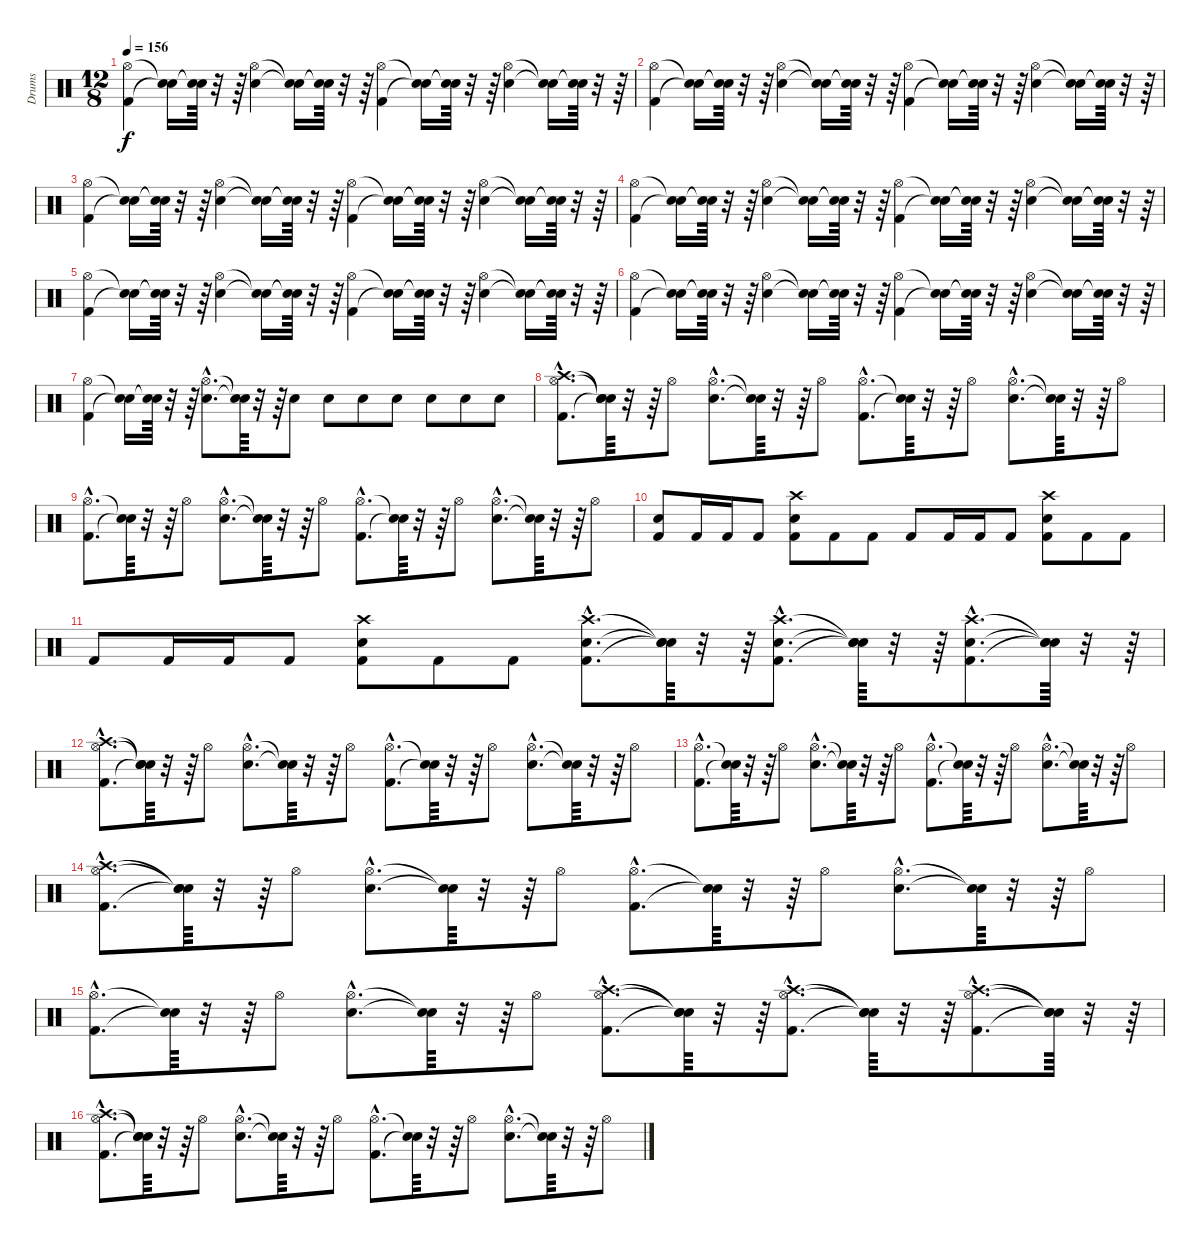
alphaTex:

\track ("Drums" "Drums") {instrument percussion}
\staff {score}
\articulation defaults
\ts (12 8)
\tempo 156
\clef neutral
\ks c
("Kick (hit) 2" "Hi-Hat (open)").4{dy f} ("Snare (hit)"{t} "Snare (hit)"{t}).16 ("Snare (hit)"{t} "Snare (hit)"{t}).64 r.32 r.64 ("Snare (hit) 2" "Hi-Hat (open)").4 ("Snare (hit)"{t} "Snare (hit)"{t}).16 ("Snare (hit)"{t} "Snare (hit)"{t}).64 r.32 r.64 ("Kick (hit) 2" "Hi-Hat (open)").4 ("Snare (hit)"{t} "Snare (hit)"{t}).16 ("Snare (hit)"{t} "Snare (hit)"{t}).64 r.32 r.64 ("Snare (hit) 2" "Hi-Hat (open)").4 ("Snare (hit)"{t} "Snare (hit)"{t}).16 ("Snare (hit)"{t} "Snare (hit)"{t}).64 r.32 r.64 |
("Kick (hit) 2" "Hi-Hat (open)").4 ("Snare (hit)"{t} "Snare (hit)"{t}).16 ("Snare (hit)"{t} "Snare (hit)"{t}).64 r.32 r.64 ("Snare (hit) 2" "Hi-Hat (open)").4 ("Snare (hit)"{t} "Snare (hit)"{t}).16 ("Snare (hit)"{t} "Snare (hit)"{t}).64 r.32 r.64 ("Kick (hit) 2" "Hi-Hat (open)").4 ("Snare (hit)"{t} "Snare (hit)"{t}).16 ("Snare (hit)"{t} "Snare (hit)"{t}).64 r.32 r.64 ("Snare (hit) 2" "Hi-Hat (open)").4 ("Snare (hit)"{t} "Snare (hit)"{t}).16 ("Snare (hit)"{t} "Snare (hit)"{t}).64 r.32 r.64 |
("Kick (hit) 2" "Hi-Hat (open)").4 ("Snare (hit)"{t} "Snare (hit)"{t}).16 ("Snare (hit)"{t} "Snare (hit)"{t}).64 r.32 r.64 ("Snare (hit) 2" "Hi-Hat (open)").4 ("Snare (hit)"{t} "Snare (hit)"{t}).16 ("Snare (hit)"{t} "Snare (hit)"{t}).64 r.32 r.64 ("Kick (hit) 2" "Hi-Hat (open)").4 ("Snare (hit)"{t} "Snare (hit)"{t}).16 ("Snare (hit)"{t} "Snare (hit)"{t}).64 r.32 r.64 ("Snare (hit) 2" "Hi-Hat (open)").4 ("Snare (hit)"{t} "Snare (hit)"{t}).16 ("Snare (hit)"{t} "Snare (hit)"{t}).64 r.32 r.64 |
("Kick (hit) 2" "Hi-Hat (open)").4 ("Snare (hit)"{t} "Snare (hit)"{t}).16 ("Snare (hit)"{t} "Snare (hit)"{t}).64 r.32 r.64 ("Snare (hit) 2" "Hi-Hat (open)").4 ("Snare (hit)"{t} "Snare (hit)"{t}).16 ("Snare (hit)"{t} "Snare (hit)"{t}).64 r.32 r.64 ("Kick (hit) 2" "Hi-Hat (open)").4 ("Snare (hit)"{t} "Snare (hit)"{t}).16 ("Snare (hit)"{t} "Snare (hit)"{t}).64 r.32 r.64 ("Snare (hit) 2" "Hi-Hat (open)").4 ("Snare (hit)"{t} "Snare (hit)"{t}).16 ("Snare (hit)"{t} "Snare (hit)"{t}).64 r.32 r.64 |
("Kick (hit) 2" "Hi-Hat (open)").4 ("Snare (hit)"{t} "Snare (hit)"{t}).16 ("Snare (hit)"{t} "Snare (hit)"{t}).64 r.32 r.64 ("Snare (hit) 2" "Hi-Hat (open)").4 ("Snare (hit)"{t} "Snare (hit)"{t}).16 ("Snare (hit)"{t} "Snare (hit)"{t}).64 r.32 r.64 ("Kick (hit) 2" "Hi-Hat (open)").4 ("Snare (hit)"{t} "Snare (hit)"{t}).16 ("Snare (hit)"{t} "Snare (hit)"{t}).64 r.32 r.64 ("Snare (hit) 2" "Hi-Hat (open)").4 ("Snare (hit)"{t} "Snare (hit)"{t}).16 ("Snare (hit)"{t} "Snare (hit)"{t}).64 r.32 r.64 |
("Kick (hit) 2" "Hi-Hat (open)").4 ("Snare (hit)"{t} "Snare (hit)"{t}).16 ("Snare (hit)"{t} "Snare (hit)"{t}).64 r.32 r.64 ("Snare (hit) 2" "Hi-Hat (open)").4 ("Snare (hit)"{t} "Snare (hit)"{t}).16 ("Snare (hit)"{t} "Snare (hit)"{t}).64 r.32 r.64 ("Kick (hit) 2" "Hi-Hat (open)").4 ("Snare (hit)"{t} "Snare (hit)"{t}).16 ("Snare (hit)"{t} "Snare (hit)"{t}).64 r.32 r.64 ("Snare (hit) 2" "Hi-Hat (open)").4 ("Snare (hit)"{t} "Snare (hit)"{t}).16 ("Snare (hit)"{t} "Snare (hit)"{t}).64 r.32 r.64 |
("Kick (hit) 2" "Hi-Hat (open)").4 ("Snare (hit)"{t} "Snare (hit)"{t}).16 ("Snare (hit)"{t} "Snare (hit)"{t}).64 r.32 r.64 ("Snare (hit) 2"{hac} "Hi-Hat (open)"{hac}).8{d} ("Snare (hit)"{t} "Snare (hit)"{t}).64 r.32 r.64 "Snare (hit) 2".8 "Snare (hit) 2".8 "Snare (hit) 2".8 "Snare (hit) 2".8 "Snare (hit) 2".8 "Snare (hit) 2".8 "Snare (hit) 2".8 |
("Kick (hit) 2"{hac} "Hi-Hat (open)"{hac} "Crash high (hit)"{hac}).8{d} ("Snare (hit)"{t} "Snare (hit)"{t} "Snare (hit)"{t}).64 r.32 r.64 "Hi-Hat (open)".8 ("Snare (hit) 2"{hac} "Hi-Hat (open)"{hac}).8{d} ("Snare (hit)"{t} "Snare (hit)"{t}).64 r.32 r.64 "Hi-Hat (open)".8 ("Kick (hit) 2"{hac} "Hi-Hat (open)"{hac}).8{d} ("Snare (hit)"{t} "Snare (hit)"{t}).64 r.32 r.64 "Hi-Hat (open)".8 ("Snare (hit) 2"{hac} "Hi-Hat (open)"{hac}).8{d} ("Snare (hit)"{t} "Snare (hit)"{t}).64 r.32 r.64 "Hi-Hat (open)".8 |
("Kick (hit) 2"{hac} "Hi-Hat (open)"{hac}).8{d} ("Snare (hit)"{t} "Snare (hit)"{t}).64 r.32 r.64 "Hi-Hat (open)".8 ("Snare (hit) 2"{hac} "Hi-Hat (open)"{hac}).8{d} ("Snare (hit)"{t} "Snare (hit)"{t}).64 r.32 r.64 "Hi-Hat (open)".8 ("Kick (hit) 2"{hac} "Hi-Hat (open)"{hac}).8{d} ("Snare (hit)"{t} "Snare (hit)"{t}).64 r.32 r.64 "Hi-Hat (open)".8 ("Snare (hit) 2"{hac} "Hi-Hat (open)"{hac}).8{d} ("Snare (hit)"{t} "Snare (hit)"{t}).64 r.32 r.64 "Hi-Hat (open)".8 |
("Kick (hit) 2" "Snare (hit) 2").8 "Kick (hit) 2".16 "Kick (hit) 2".16 "Kick (hit) 2".8 ("Kick (hit) 2" "Snare (hit) 2" "Crash high (hit)").8 "Kick (hit) 2".8 "Kick (hit) 2".8 "Kick (hit) 2".8 "Kick (hit) 2".16 "Kick (hit) 2".16 "Kick (hit) 2".8 ("Kick (hit) 2" "Snare (hit) 2" "Crash high (hit)").8 "Kick (hit) 2".8 "Kick (hit) 2".8 |
"Kick (hit) 2".8 "Kick (hit) 2".16 "Kick (hit) 2".16 "Kick (hit) 2".8 ("Kick (hit) 2" "Snare (hit) 2" "Crash high (hit)").8 "Kick (hit) 2".8 "Kick (hit) 2".8 ("Kick (hit) 2"{hac} "Snare (hit) 2"{hac} "Crash high (hit)"{hac}).8{d} ("Snare (hit)"{t} "Snare (hit)"{t} "Snare (hit)"{t}).64 r.32 r.64 ("Kick (hit) 2"{hac} "Snare (hit) 2"{hac} "Crash high (hit)"{hac}).8{d} ("Snare (hit)"{t} "Snare (hit)"{t} "Snare (hit)"{t}).64 r.32 r.64 ("Kick (hit) 2"{hac} "Snare (hit) 2"{hac} "Crash high (hit)"{hac}).8{d} ("Snare (hit)"{t} "Snare (hit)"{t} "Snare (hit)"{t}).64 r.32 r.64 |
("Kick (hit) 2"{hac} "Hi-Hat (open)"{hac} "Crash high (hit)"{hac}).8{d} ("Snare (hit)"{t} "Snare (hit)"{t} "Snare (hit)"{t}).64 r.32 r.64 "Hi-Hat (open)".8 ("Snare (hit) 2"{hac} "Hi-Hat (open)"{hac}).8{d} ("Snare (hit)"{t} "Snare (hit)"{t}).64 r.32 r.64 "Hi-Hat (open)".8 ("Kick (hit) 2"{hac} "Hi-Hat (open)"{hac}).8{d} ("Snare (hit)"{t} "Snare (hit)"{t}).64 r.32 r.64 "Hi-Hat (open)".8 ("Snare (hit) 2"{hac} "Hi-Hat (open)"{hac}).8{d} ("Snare (hit)"{t} "Snare (hit)"{t}).64 r.32 r.64 "Hi-Hat (open)".8 |
("Kick (hit) 2"{hac} "Hi-Hat (open)"{hac}).8{d} ("Snare (hit)"{t} "Snare (hit)"{t}).64 r.32 r.64 "Hi-Hat (open)".8 ("Snare (hit) 2"{hac} "Hi-Hat (open)"{hac}).8{d} ("Snare (hit)"{t} "Snare (hit)"{t}).64 r.32 r.64 "Hi-Hat (open)".8 ("Kick (hit) 2"{hac} "Hi-Hat (open)"{hac}).8{d} ("Snare (hit)"{t} "Snare (hit)"{t}).64 r.32 r.64 "Hi-Hat (open)".8 ("Snare (hit) 2"{hac} "Hi-Hat (open)"{hac}).8{d} ("Snare (hit)"{t} "Snare (hit)"{t}).64 r.32 r.64 "Hi-Hat (open)".8 |
("Kick (hit) 2"{hac} "Hi-Hat (open)"{hac} "Crash high (hit)"{hac}).8{d} ("Snare (hit)"{t} "Snare (hit)"{t} "Snare (hit)"{t}).64 r.32 r.64 "Hi-Hat (open)".8 ("Snare (hit) 2"{hac} "Hi-Hat (open)"{hac}).8{d} ("Snare (hit)"{t} "Snare (hit)"{t}).64 r.32 r.64 "Hi-Hat (open)".8 ("Kick (hit) 2"{hac} "Hi-Hat (open)"{hac}).8{d} ("Snare (hit)"{t} "Snare (hit)"{t}).64 r.32 r.64 "Hi-Hat (open)".8 ("Snare (hit) 2"{hac} "Hi-Hat (open)"{hac}).8{d} ("Snare (hit)"{t} "Snare (hit)"{t}).64 r.32 r.64 "Hi-Hat (open)".8 |
("Kick (hit) 2"{hac} "Hi-Hat (open)"{hac}).8{d} ("Snare (hit)"{t} "Snare (hit)"{t}).64 r.32 r.64 "Hi-Hat (open)".8 ("Snare (hit) 2"{hac} "Hi-Hat (open)"{hac}).8{d} ("Snare (hit)"{t} "Snare (hit)"{t}).64 r.32 r.64 "Hi-Hat (open)".8 ("Kick (hit) 2"{hac} "Hi-Hat (open)"{hac} "Crash high (hit)"{hac}).8{d} ("Snare (hit)"{t} "Snare (hit)"{t} "Snare (hit)"{t}).64 r.32 r.64 ("Kick (hit) 2"{hac} "Hi-Hat (open)"{hac} "Crash high (hit)"{hac}).8{d} ("Snare (hit)"{t} "Snare (hit)"{t} "Snare (hit)"{t}).64 r.32 r.64 ("Kick (hit) 2"{hac} "Hi-Hat (open)"{hac} "Crash high (hit)"{hac}).8{d} ("Snare (hit)"{t} "Snare (hit)"{t} "Snare (hit)"{t}).64 r.32 r.64 |
("Kick (hit) 2"{hac} "Hi-Hat (open)"{hac} "Crash high (hit)"{hac}).8{d} ("Snare (hit)"{t} "Snare (hit)"{t} "Snare (hit)"{t}).64 r.32 r.64 "Hi-Hat (open)".8 ("Snare (hit) 2"{hac} "Hi-Hat (open)"{hac}).8{d} ("Snare (hit)"{t} "Snare (hit)"{t}).64 r.32 r.64 "Hi-Hat (open)".8 ("Kick (hit) 2"{hac} "Hi-Hat (open)"{hac}).8{d} ("Snare (hit)"{t} "Snare (hit)"{t}).64 r.32 r.64 "Hi-Hat (open)".8 ("Snare (hit) 2"{hac} "Hi-Hat (open)"{hac}).8{d} ("Snare (hit)"{t} "Snare (hit)"{t}).64 r.32 r.64 "Hi-Hat (open)".8
